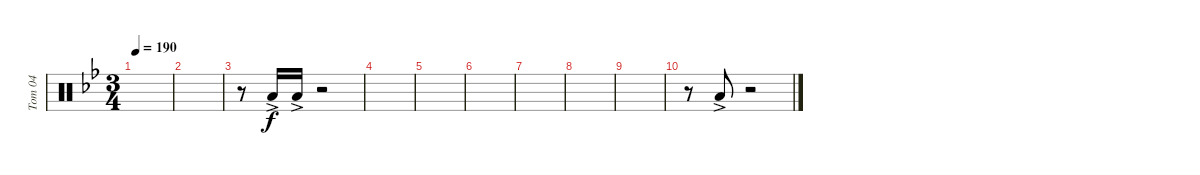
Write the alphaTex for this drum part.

\track ("Tom 04" "Tom 04") {instrument percussion}
\staff {score}
\articulation defaults
\ts (3 4)
\tempo 190
\clef neutral
\ks bb
|
|
r.8 "Low Tom (hit)"{ac}.16 "Low Tom (hit)"{ac}.16 r.2 |
|
|
|
|
|
|
r.8 "Low Tom (hit)"{ac}.8 r.2
